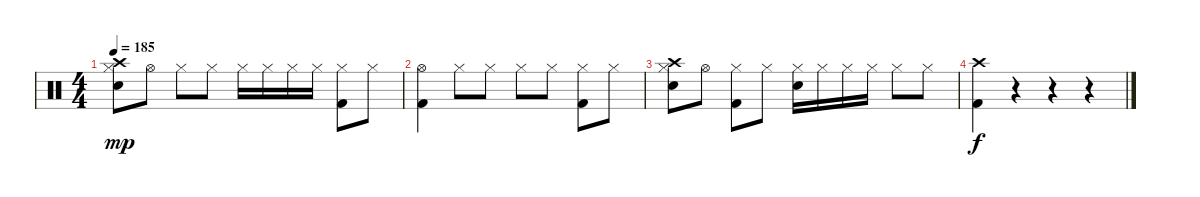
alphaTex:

\track "" {instrument percussion}
\staff {score}
\articulation defaults
\ts (4 4)
\tempo 185
\clef neutral
\ks c
("Hi-Hat (closed)" "Electric Snare (hit)" "Crash high (hit)").8{dy mp} "Hi-Hat (open)".8 "Hi-Hat (closed)".8 "Hi-Hat (closed)".8 "Hi-Hat (closed)".16 "Hi-Hat (closed)".16 "Hi-Hat (closed)".16 "Hi-Hat (closed)".16 ("Hi-Hat (closed)" "Kick (hit) 2").8 "Hi-Hat (closed)".8 |
("Hi-Hat (open)" "Kick (hit) 2").4 "Hi-Hat (closed)".8 "Hi-Hat (closed)".8 "Hi-Hat (closed)".8 "Hi-Hat (closed)".8 ("Hi-Hat (closed)" "Kick (hit) 2").8 "Hi-Hat (closed)".8 |
("Hi-Hat (closed)" "Electric Snare (hit)" "Crash high (hit)").8 "Hi-Hat (open)".8 ("Hi-Hat (closed)" "Kick (hit) 2").8 "Hi-Hat (closed)".8 ("Hi-Hat (closed)" "Electric Snare (hit)").16 "Hi-Hat (closed)".16 "Hi-Hat (closed)".16 "Hi-Hat (closed)".16 "Hi-Hat (closed)".8 "Hi-Hat (closed)".8 |
("Kick (hit) 2" "Crash high (hit)").4{dy f} r.4 r.4 r.4
